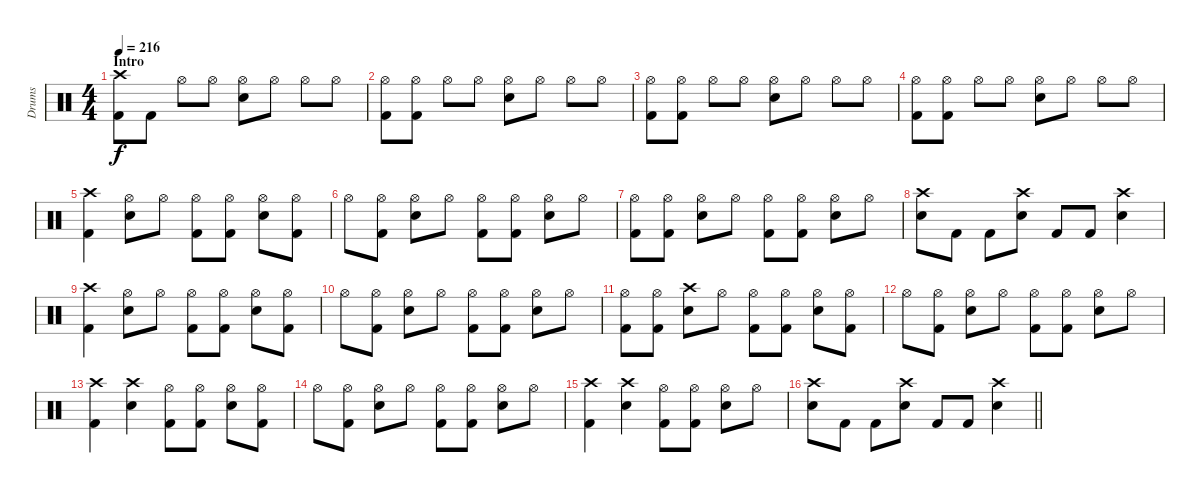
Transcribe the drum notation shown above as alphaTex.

\track ("Drums" "Drums") {instrument percussion}
\staff {score}
\articulation defaults
\ts (4 4)
\section ("" "Intro")
\tempo 216
\clef neutral
\ks c
("Crash high (hit)" "Kick (hit) 2").8{dy f} "Kick (hit) 2".8 "Hi-Hat (open)".8 "Hi-Hat (open)".8 ("Hi-Hat (open)" "Electric Snare (hit)").8 "Hi-Hat (open)".8 "Hi-Hat (open)".8 "Hi-Hat (open)".8 |
("Hi-Hat (open)" "Kick (hit) 2").8 ("Hi-Hat (open)" "Kick (hit) 2").8 "Hi-Hat (open)".8 "Hi-Hat (open)".8 ("Hi-Hat (open)" "Electric Snare (hit)").8 "Hi-Hat (open)".8 "Hi-Hat (open)".8 "Hi-Hat (open)".8 |
("Hi-Hat (open)" "Kick (hit) 2").8 ("Hi-Hat (open)" "Kick (hit) 2").8 "Hi-Hat (open)".8 "Hi-Hat (open)".8 ("Hi-Hat (open)" "Electric Snare (hit)").8 "Hi-Hat (open)".8 "Hi-Hat (open)".8 "Hi-Hat (open)".8 |
("Hi-Hat (open)" "Kick (hit) 2").8 ("Hi-Hat (open)" "Kick (hit) 2").8 "Hi-Hat (open)".8 "Hi-Hat (open)".8 ("Hi-Hat (open)" "Electric Snare (hit)").8 "Hi-Hat (open)".8 "Hi-Hat (open)".8 "Hi-Hat (open)".8 |
("Crash high (hit)" "Kick (hit) 2").4 ("Hi-Hat (open)" "Electric Snare (hit)").8 "Hi-Hat (open)".8 ("Hi-Hat (open)" "Kick (hit) 2").8 ("Hi-Hat (open)" "Kick (hit) 2").8 ("Hi-Hat (open)" "Electric Snare (hit)").8 ("Hi-Hat (open)" "Kick (hit) 2").8 |
"Hi-Hat (open)".8 ("Hi-Hat (open)" "Kick (hit) 2").8 ("Hi-Hat (open)" "Electric Snare (hit)").8 "Hi-Hat (open)".8 ("Hi-Hat (open)" "Kick (hit) 2").8 ("Hi-Hat (open)" "Kick (hit) 2").8 ("Hi-Hat (open)" "Electric Snare (hit)").8 "Hi-Hat (open)".8 |
("Hi-Hat (open)" "Kick (hit) 2").8 ("Hi-Hat (open)" "Kick (hit) 2").8 ("Hi-Hat (open)" "Electric Snare (hit)").8 "Hi-Hat (open)".8 ("Hi-Hat (open)" "Kick (hit) 2").8 ("Hi-Hat (open)" "Kick (hit) 2").8 ("Hi-Hat (open)" "Electric Snare (hit)").8 "Hi-Hat (open)".8 |
("Crash high (hit)" "Electric Snare (hit)").8 "Kick (hit) 2".8 "Kick (hit) 2".8 ("Crash high (hit)" "Electric Snare (hit)").8 "Kick (hit) 2".8 "Kick (hit) 2".8 ("Crash high (hit)" "Electric Snare (hit)").4 |
("Crash high (hit)" "Kick (hit) 2").4 ("Hi-Hat (open)" "Electric Snare (hit)").8 "Hi-Hat (open)".8 ("Hi-Hat (open)" "Kick (hit) 2").8 ("Hi-Hat (open)" "Kick (hit) 2").8 ("Hi-Hat (open)" "Electric Snare (hit)").8 ("Hi-Hat (open)" "Kick (hit) 2").8 |
"Hi-Hat (open)".8 ("Hi-Hat (open)" "Kick (hit) 2").8 ("Hi-Hat (open)" "Electric Snare (hit)").8 "Hi-Hat (open)".8 ("Hi-Hat (open)" "Kick (hit) 2").8 ("Hi-Hat (open)" "Kick (hit) 2").8 ("Hi-Hat (open)" "Electric Snare (hit)").8 "Hi-Hat (open)".8 |
("Hi-Hat (open)" "Kick (hit) 2").8 ("Hi-Hat (open)" "Kick (hit) 2").8 ("Crash high (hit)" "Electric Snare (hit)").8 "Hi-Hat (open)".8 ("Hi-Hat (open)" "Kick (hit) 2").8 ("Hi-Hat (open)" "Kick (hit) 2").8 ("Hi-Hat (open)" "Electric Snare (hit)").8 ("Hi-Hat (open)" "Kick (hit) 2").8 |
"Hi-Hat (open)".8 ("Hi-Hat (open)" "Kick (hit) 2").8 ("Hi-Hat (open)" "Electric Snare (hit)").8 "Hi-Hat (open)".8 ("Hi-Hat (open)" "Kick (hit) 2").8 ("Hi-Hat (open)" "Kick (hit) 2").8 ("Hi-Hat (open)" "Electric Snare (hit)").8 "Hi-Hat (open)".8 |
("Crash high (hit)" "Kick (hit) 2").4 ("Crash high (hit)" "Electric Snare (hit)").4 ("Hi-Hat (open)" "Kick (hit) 2").8 ("Hi-Hat (open)" "Kick (hit) 2").8 ("Hi-Hat (open)" "Electric Snare (hit)").8 ("Hi-Hat (open)" "Kick (hit) 2").8 |
"Hi-Hat (open)".8 ("Hi-Hat (open)" "Kick (hit) 2").8 ("Hi-Hat (open)" "Electric Snare (hit)").8 "Hi-Hat (open)".8 ("Hi-Hat (open)" "Kick (hit) 2").8 ("Hi-Hat (open)" "Kick (hit) 2").8 ("Hi-Hat (open)" "Electric Snare (hit)").8 "Hi-Hat (open)".8 |
("Crash high (hit)" "Kick (hit) 2").4 ("Crash high (hit)" "Electric Snare (hit)").4 ("Hi-Hat (open)" "Kick (hit) 2").8 ("Hi-Hat (open)" "Kick (hit) 2").8 ("Hi-Hat (open)" "Electric Snare (hit)").8 "Hi-Hat (open)".8 |
\barLineRight lightlight
("Crash high (hit)" "Electric Snare (hit)").8 "Kick (hit) 2".8 "Kick (hit) 2".8 ("Crash high (hit)" "Electric Snare (hit)").8 "Kick (hit) 2".8 "Kick (hit) 2".8 ("Crash high (hit)" "Electric Snare (hit)").4
